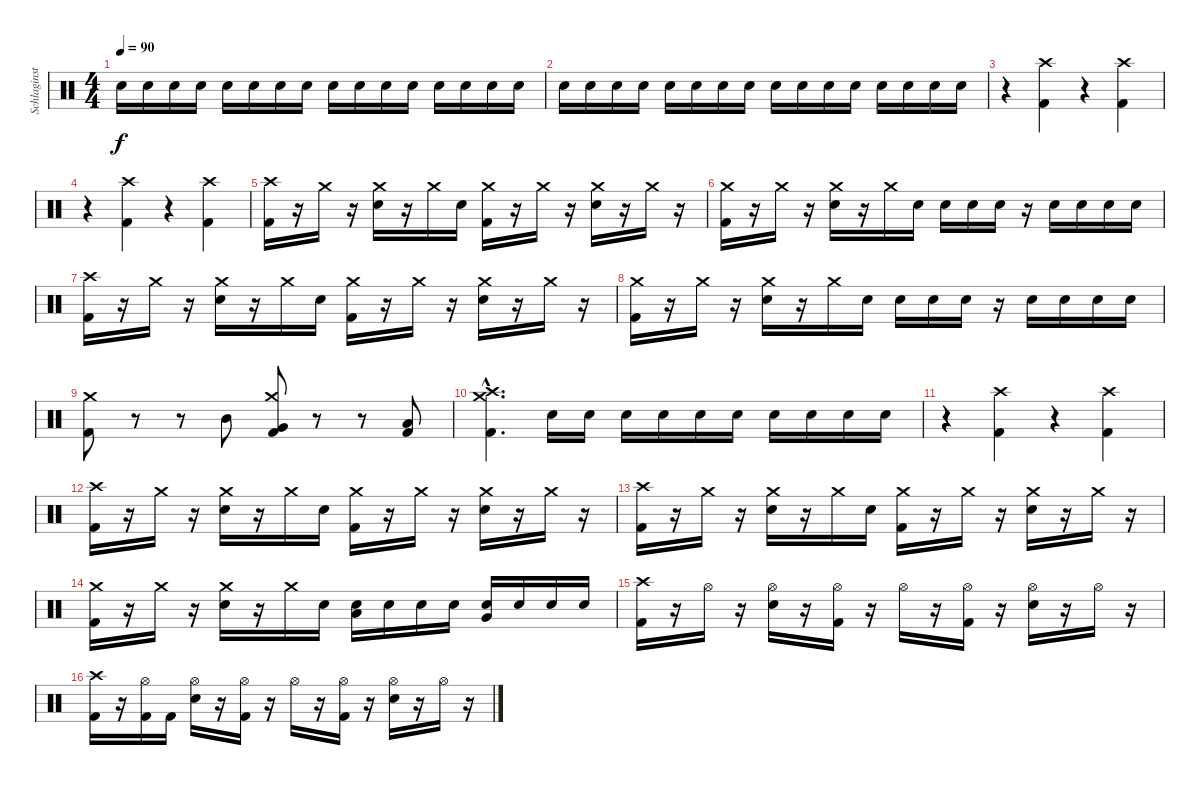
\track ("Schlaginstrumente - Auswahl" "Schlaginst") {instrument percussion}
\staff {score}
\articulation defaults
\ts (4 4)
\tempo 90
\clef neutral
\ks c "Snare (hit) 2".16{dy f volume 14} "Snare (hit) 2".16 "Snare (hit) 2".16 "Snare (hit) 2".16 "Snare (hit) 2".16 "Snare (hit) 2".16 "Snare (hit) 2".16 "Snare (hit) 2".16 "Snare (hit) 2".16 "Snare (hit) 2".16 "Snare (hit) 2".16 "Snare (hit) 2".16 "Snare (hit) 2".16 "Snare (hit) 2".16 "Snare (hit) 2".16 "Snare (hit) 2".16
|
"Snare (hit) 2".16 "Snare (hit) 2".16 "Snare (hit) 2".16 "Snare (hit) 2".16 "Snare (hit) 2".16 "Snare (hit) 2".16 "Snare (hit) 2".16 "Snare (hit) 2".16 "Snare (hit) 2".16 "Snare (hit) 2".16 "Snare (hit) 2".16 "Snare (hit) 2".16 "Snare (hit) 2".16 "Snare (hit) 2".16 "Snare (hit) 2".16 "Snare (hit) 2".16 |
r.4 ("Crash high (hit)" "Kick (hit) 2").4 r.4 ("Crash high (hit)" "Kick (hit) 2").4 |
r.4 ("Crash high (hit)" "Kick (hit) 2").4 r.4 ("Crash high (hit)" "Kick (hit) 2").4 |
("Crash high (hit)" "Kick (hit) 2").16 r.16 "Crash medium (hit)".16 r.16 ("Crash medium (hit)" "Snare (hit) 2").16 r.16 "Crash medium (hit)".16 "Snare (hit) 2".16 ("Crash medium (hit)" "Kick (hit) 2").16 r.16 "Crash medium (hit)".16 r.16 ("Crash medium (hit)" "Snare (hit) 2").16 r.16 "Crash medium (hit)".16 r.16 |
("Crash medium (hit)" "Kick (hit) 2").16 r.16 "Crash medium (hit)".16 r.16 ("Crash medium (hit)" "Snare (hit) 2").16 r.16 "Crash medium (hit)".16 "Snare (hit) 2".16 "Snare (hit) 2".16 "Snare (hit) 2".16 "Snare (hit) 2".16 r.16 "Snare (hit) 2".16 "Snare (hit) 2".16 "Snare (hit) 2".16 "Snare (hit) 2".16 |
("Crash high (hit)" "Kick (hit) 2").16 r.16 "Crash medium (hit)".16 r.16 ("Crash medium (hit)" "Snare (hit) 2").16 r.16 "Crash medium (hit)".16 "Snare (hit) 2".16 ("Crash medium (hit)" "Kick (hit) 2").16 r.16 "Crash medium (hit)".16 r.16 ("Crash medium (hit)" "Snare (hit) 2").16 r.16 "Crash medium (hit)".16 r.16 |
("Crash medium (hit)" "Kick (hit) 2").16 r.16 "Crash medium (hit)".16 r.16 ("Crash medium (hit)" "Snare (hit) 2").16 r.16 "Crash medium (hit)".16 "Snare (hit) 2".16 "Snare (hit) 2".16 "Snare (hit) 2".16 "Snare (hit) 2".16 r.16 "Snare (hit) 2".16 "Snare (hit) 2".16 "Snare (hit) 2".16 "Snare (hit) 2".16 |
("Crash medium (hit)" "Kick (hit) 2").8 r.8 r.8 "Mid Tom (hit)".8 ("Crash medium (hit)" "Very Low Tom (hit)" "Kick (hit) 2").8 r.8 r.8 ("Low Floor Tom (hit)" "Kick (hit) 2").8 |
("Crash high (hit)"{hac} "Crash medium (hit)"{hac} "Kick (hit) 2"{hac}).4{d} "Snare (hit) 2".16 "Snare (hit) 2".16 "Snare (hit) 2".16 "Snare (hit) 2".16 "Snare (hit) 2".16 "Snare (hit) 2".16 "Snare (hit) 2".16 "Snare (hit) 2".16 "Snare (hit) 2".16 "Snare (hit) 2".16 |
r.4 ("Crash high (hit)" "Kick (hit) 2").4 r.4 ("Crash high (hit)" "Kick (hit) 2").4 |
("Crash high (hit)" "Kick (hit) 2").16 r.16 "Crash medium (hit)".16 r.16 ("Crash medium (hit)" "Snare (hit) 2").16 r.16 "Crash medium (hit)".16 "Snare (hit) 2".16 ("Crash medium (hit)" "Kick (hit) 2").16 r.16 "Crash medium (hit)".16 r.16 ("Crash medium (hit)" "Snare (hit) 2").16 r.16 "Crash medium (hit)".16 r.16 |
("Crash high (hit)" "Kick (hit) 2").16 r.16 "Crash medium (hit)".16 r.16 ("Crash medium (hit)" "Snare (hit) 2").16 r.16 "Crash medium (hit)".16 "Snare (hit) 2".16 ("Crash medium (hit)" "Kick (hit) 2").16 r.16 "Crash medium (hit)".16 r.16 ("Crash medium (hit)" "Snare (hit) 2").16 r.16 "Crash medium (hit)".16 r.16 |
("Crash medium (hit)" "Kick (hit) 2").16 r.16 "Crash medium (hit)".16 r.16 ("Crash medium (hit)" "Snare (hit) 2").16 r.16 "Crash medium (hit)".16 "Snare (hit) 2".16 ("Low Tom (hit)" "Snare (hit) 2").16 "Snare (hit) 2".16 "Snare (hit) 2".16 "Snare (hit) 2".16 ("Very Low Tom (hit)" "Snare (hit) 2").16 "Snare (hit) 2".16 "Snare (hit) 2".16 "Snare (hit) 2".16 |
("Crash high (hit)" "Kick (hit) 2").16 r.16 "Hi-Hat (open)".16 r.16 ("Hi-Hat (open)" "Snare (hit) 2").16 r.16 ("Hi-Hat (open)" "Kick (hit) 2").16 r.16 "Hi-Hat (open)".16 r.16 ("Hi-Hat (open)" "Kick (hit) 2").16 r.16 ("Hi-Hat (open)" "Snare (hit) 2").16 r.16 "Hi-Hat (open)".16 r.16 |
("Crash high (hit)" "Kick (hit) 2").16 r.16 ("Hi-Hat (open)" "Kick (hit) 2").16 "Kick (hit) 2".16 ("Hi-Hat (open)" "Snare (hit) 2").16 r.16 ("Hi-Hat (open)" "Kick (hit) 2").16 r.16 "Hi-Hat (open)".16 r.16 ("Hi-Hat (open)" "Kick (hit) 2").16 r.16 ("Hi-Hat (open)" "Snare (hit) 2").16 r.16 "Hi-Hat (open)".16 r.16
